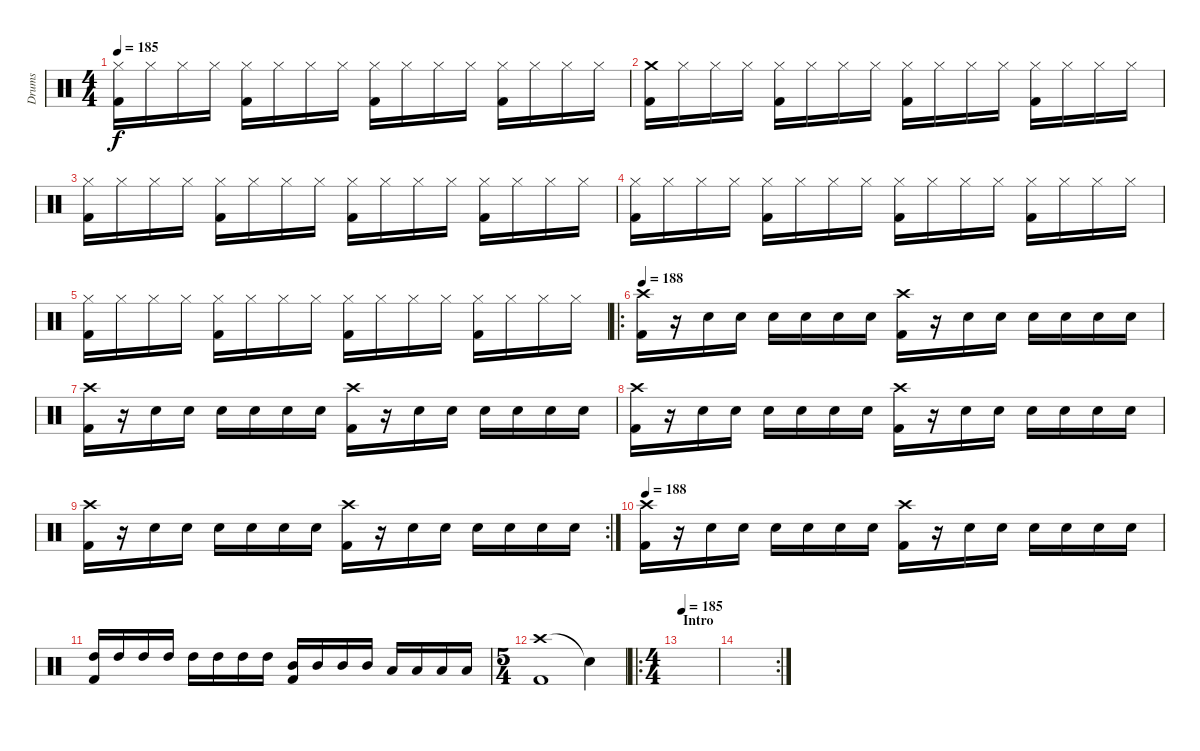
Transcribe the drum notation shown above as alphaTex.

\track ("Drums" "Drums") {instrument percussion}
\staff {score}
\articulation defaults
\ts (4 4)
\tempo 185
\clef neutral
\ks c
("Hi-Hat (closed)" "Kick (hit) 2").16{dy f} "Hi-Hat (closed)".16 "Hi-Hat (closed)".16 "Hi-Hat (closed)".16 ("Hi-Hat (closed)" "Kick (hit) 2").16 "Hi-Hat (closed)".16 "Hi-Hat (closed)".16 "Hi-Hat (closed)".16 ("Hi-Hat (closed)" "Kick (hit) 2").16 "Hi-Hat (closed)".16 "Hi-Hat (closed)".16 "Hi-Hat (closed)".16 ("Hi-Hat (closed)" "Kick (hit) 2").16 "Hi-Hat (closed)".16 "Hi-Hat (closed)".16 "Hi-Hat (closed)".16 |
("Crash medium (hit)" "Kick (hit) 2").16 "Hi-Hat (closed)".16 "Hi-Hat (closed)".16 "Hi-Hat (closed)".16 ("Hi-Hat (closed)" "Kick (hit) 2").16 "Hi-Hat (closed)".16 "Hi-Hat (closed)".16 "Hi-Hat (closed)".16 ("Hi-Hat (closed)" "Kick (hit) 2").16 "Hi-Hat (closed)".16 "Hi-Hat (closed)".16 "Hi-Hat (closed)".16 ("Hi-Hat (closed)" "Kick (hit) 2").16 "Hi-Hat (closed)".16 "Hi-Hat (closed)".16 "Hi-Hat (closed)".16 |
("Hi-Hat (closed)" "Kick (hit) 2").16 "Hi-Hat (closed)".16 "Hi-Hat (closed)".16 "Hi-Hat (closed)".16 ("Hi-Hat (closed)" "Kick (hit) 2").16 "Hi-Hat (closed)".16 "Hi-Hat (closed)".16 "Hi-Hat (closed)".16 ("Hi-Hat (closed)" "Kick (hit) 2").16 "Hi-Hat (closed)".16 "Hi-Hat (closed)".16 "Hi-Hat (closed)".16 ("Hi-Hat (closed)" "Kick (hit) 2").16 "Hi-Hat (closed)".16 "Hi-Hat (closed)".16 "Hi-Hat (closed)".16 |
("Hi-Hat (closed)" "Kick (hit) 2").16 "Hi-Hat (closed)".16 "Hi-Hat (closed)".16 "Hi-Hat (closed)".16 ("Hi-Hat (closed)" "Kick (hit) 2").16 "Hi-Hat (closed)".16 "Hi-Hat (closed)".16 "Hi-Hat (closed)".16 ("Hi-Hat (closed)" "Kick (hit) 2").16 "Hi-Hat (closed)".16 "Hi-Hat (closed)".16 "Hi-Hat (closed)".16 ("Hi-Hat (closed)" "Kick (hit) 2").16 "Hi-Hat (closed)".16 "Hi-Hat (closed)".16 "Hi-Hat (closed)".16 |
("Hi-Hat (closed)" "Kick (hit) 2").16 "Hi-Hat (closed)".16 "Hi-Hat (closed)".16 "Hi-Hat (closed)".16 ("Hi-Hat (closed)" "Kick (hit) 2").16 "Hi-Hat (closed)".16 "Hi-Hat (closed)".16 "Hi-Hat (closed)".16 ("Hi-Hat (closed)" "Kick (hit) 2").16 "Hi-Hat (closed)".16 "Hi-Hat (closed)".16 "Hi-Hat (closed)".16 ("Hi-Hat (closed)" "Kick (hit) 2").16 "Hi-Hat (closed)".16 "Hi-Hat (closed)".16 "Hi-Hat (closed)".16 |
\ro
\tempo 188
("Crash high (hit)" "Kick (hit) 2").16 r.16 "Electric Snare (hit)".16 "Electric Snare (hit)".16 "Electric Snare (hit)".16 "Electric Snare (hit)".16 "Electric Snare (hit)".16 "Electric Snare (hit)".16 ("Crash high (hit)" "Kick (hit) 2").16 r.16 "Electric Snare (hit)".16 "Electric Snare (hit)".16 "Electric Snare (hit)".16 "Electric Snare (hit)".16 "Electric Snare (hit)".16 "Electric Snare (hit)".16 |
("Crash high (hit)" "Kick (hit) 2").16 r.16 "Electric Snare (hit)".16 "Electric Snare (hit)".16 "Electric Snare (hit)".16 "Electric Snare (hit)".16 "Electric Snare (hit)".16 "Electric Snare (hit)".16 ("Crash high (hit)" "Kick (hit) 2").16 r.16 "Electric Snare (hit)".16 "Electric Snare (hit)".16 "Electric Snare (hit)".16 "Electric Snare (hit)".16 "Electric Snare (hit)".16 "Electric Snare (hit)".16 |
("Crash high (hit)" "Kick (hit) 2").16 r.16 "Electric Snare (hit)".16 "Electric Snare (hit)".16 "Electric Snare (hit)".16 "Electric Snare (hit)".16 "Electric Snare (hit)".16 "Electric Snare (hit)".16 ("Crash high (hit)" "Kick (hit) 2").16 r.16 "Electric Snare (hit)".16 "Electric Snare (hit)".16 "Electric Snare (hit)".16 "Electric Snare (hit)".16 "Electric Snare (hit)".16 "Electric Snare (hit)".16 |
\rc 2
("Crash high (hit)" "Kick (hit) 2").16 r.16 "Electric Snare (hit)".16 "Electric Snare (hit)".16 "Electric Snare (hit)".16 "Electric Snare (hit)".16 "Electric Snare (hit)".16 "Electric Snare (hit)".16 ("Crash high (hit)" "Kick (hit) 2").16 r.16 "Electric Snare (hit)".16 "Electric Snare (hit)".16 "Electric Snare (hit)".16 "Electric Snare (hit)".16 "Electric Snare (hit)".16 "Electric Snare (hit)".16 |
\tempo 188
("Crash high (hit)" "Kick (hit) 2").16 r.16 "Electric Snare (hit)".16 "Electric Snare (hit)".16 "Electric Snare (hit)".16 "Electric Snare (hit)".16 "Electric Snare (hit)".16 "Electric Snare (hit)".16 ("Crash high (hit)" "Kick (hit) 2").16 r.16 "Electric Snare (hit)".16 "Electric Snare (hit)".16 "Electric Snare (hit)".16 "Electric Snare (hit)".16 "Electric Snare (hit)".16 "Electric Snare (hit)".16 |
("High Tom (hit)" "Kick (hit) 2").16 "High Tom (hit)".16 "High Tom (hit)".16 "High Tom (hit)".16 "High Tom (hit)".16 "High Tom (hit)".16 "High Tom (hit)".16 "High Tom (hit)".16 ("Mid Tom (hit)" "Kick (hit) 2").16 "Mid Tom (hit)".16 "Mid Tom (hit)".16 "Mid Tom (hit)".16 "Low Tom (hit)".16 "Low Tom (hit)".16 "Low Tom (hit)".16 "Low Tom (hit)".16 |
\ts (5 4)
("Crash high (hit)" "Kick (hit) 2").1 "Snare (hit)"{t}.4 |
\ro
\ts (4 4)
\section ("" "Intro")
\tempo 185
|
\rc 2
